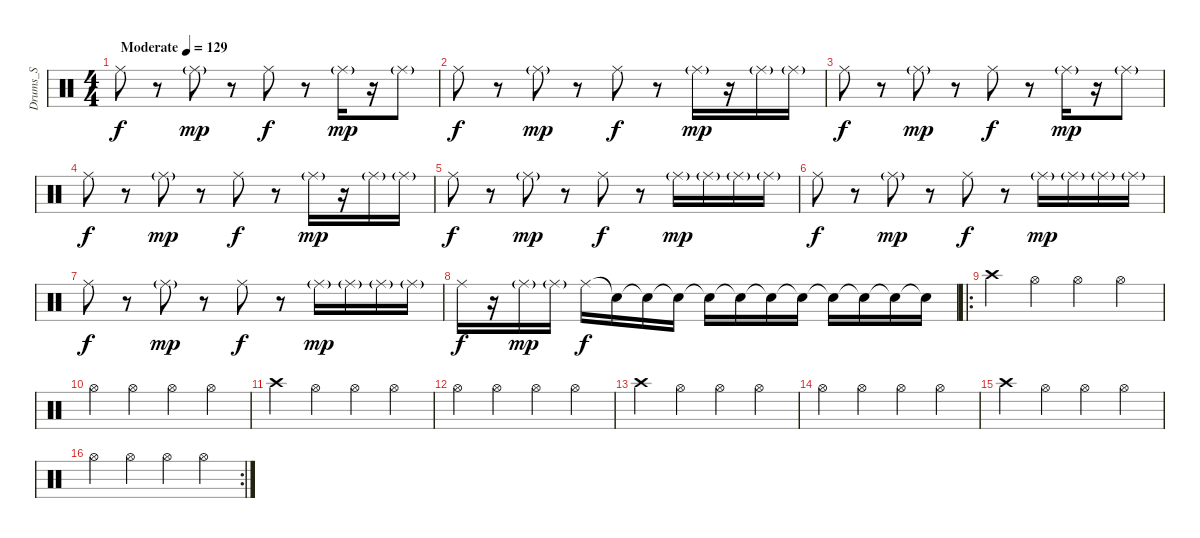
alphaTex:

\track ("Drums_S" "Drums_S") {instrument percussion}
\staff {score}
\articulation defaults
\ts (4 4)
\tempo (129 "Moderate")
\clef neutral
\ks c "Ride (middle)".8{dy f}
r.8 "Ride (middle)"{g}.8{dy mp} r.8 "Ride (middle)".8{dy f} r.8 "Ride (middle)"{g}.16{dy mp} r.16 "Ride (middle)"{g}.8 |
"Ride (middle)".8{dy f} r.8 "Ride (middle)"{g}.8{dy mp} r.8 "Ride (middle)".8{dy f} r.8 "Ride (middle)"{g}.16{dy mp} r.16 "Ride (middle)"{g}.16 "Ride (middle)"{g}.16 |
"Ride (middle)".8{dy f} r.8 "Ride (middle)"{g}.8{dy mp} r.8 "Ride (middle)".8{dy f} r.8 "Ride (middle)"{g}.16{dy mp} r.16 "Ride (middle)"{g}.8 |
"Ride (middle)".8{dy f} r.8 "Ride (middle)"{g}.8{dy mp} r.8 "Ride (middle)".8{dy f} r.8 "Ride (middle)"{g}.16{dy mp} r.16 "Ride (middle)"{g}.16 "Ride (middle)"{g}.16 |
"Ride (middle)".8{dy f} r.8 "Ride (middle)"{g}.8{dy mp} r.8 "Ride (middle)".8{dy f} r.8 "Ride (middle)"{g}.16{dy mp} "Ride (middle)"{g}.16 "Ride (middle)"{g}.16 "Ride (middle)"{g}.16 |
"Ride (middle)".8{dy f} r.8 "Ride (middle)"{g}.8{dy mp} r.8 "Ride (middle)".8{dy f} r.8 "Ride (middle)"{g}.16{dy mp} "Ride (middle)"{g}.16 "Ride (middle)"{g}.16 "Ride (middle)"{g}.16 |
"Ride (middle)".8{dy f} r.8 "Ride (middle)"{g}.8{dy mp} r.8 "Ride (middle)".8{dy f} r.8 "Ride (middle)"{g}.16{dy mp} "Ride (middle)"{g}.16 "Ride (middle)"{g}.16 "Ride (middle)"{g}.16 |
"Ride (middle)".16{dy f} r.16 "Ride (middle)"{g}.16{dy mp} "Ride (middle)"{g}.16 "Ride (middle)".16{dy f} "Snare (hit)"{t}.16 "Snare (hit)"{t}.16 "Snare (hit)"{t}.16 "Snare (hit)"{t}.16 "Snare (hit)"{t}.16 "Snare (hit)"{t}.16 "Snare (hit)"{t}.16 "Snare (hit)"{t}.16 "Snare (hit)"{t}.16 "Snare (hit)"{t}.16 "Snare (hit)"{t}.16 |
\ro "Crash high (hit)".4 "Hi-Hat (open)".4 "Hi-Hat (open)".4 "Hi-Hat (open)".4
|
"Hi-Hat (open)".4 "Hi-Hat (open)".4 "Hi-Hat (open)".4 "Hi-Hat (open)".4 |
"Crash high (hit)".4 "Hi-Hat (open)".4 "Hi-Hat (open)".4 "Hi-Hat (open)".4 |
"Hi-Hat (open)".4 "Hi-Hat (open)".4 "Hi-Hat (open)".4 "Hi-Hat (open)".4 |
"Crash high (hit)".4 "Hi-Hat (open)".4 "Hi-Hat (open)".4 "Hi-Hat (open)".4 |
"Hi-Hat (open)".4 "Hi-Hat (open)".4 "Hi-Hat (open)".4 "Hi-Hat (open)".4 |
"Crash high (hit)".4 "Hi-Hat (open)".4 "Hi-Hat (open)".4 "Hi-Hat (open)".4 |
\rc 2 "Hi-Hat (open)".4 "Hi-Hat (open)".4 "Hi-Hat (open)".4 "Hi-Hat (open)".4
